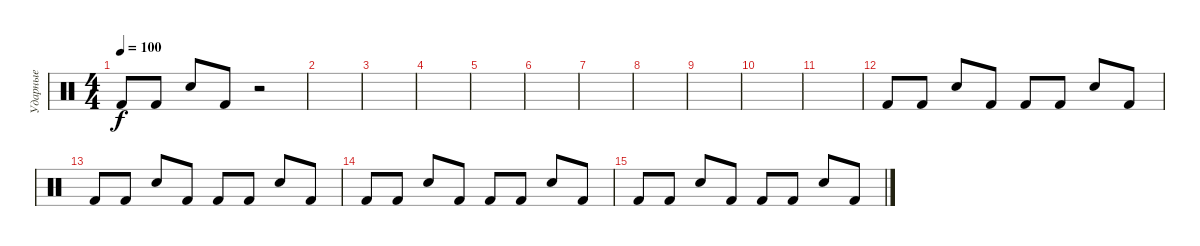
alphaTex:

\track ("Ударные" "Ударные") {instrument percussion}
\staff {score}
\articulation defaults
\ts (4 4)
\tempo 100
\clef neutral
\ks c "Kick (hit) 2".8{dy f} "Kick (hit) 2".8 "Snare (hit) 2".8 "Kick (hit) 2".8
r.2 |
|
|
|
|
|
|
|
|
|
|
"Kick (hit) 2".8 "Kick (hit) 2".8 "Snare (hit) 2".8 "Kick (hit) 2".8 "Kick (hit) 2".8 "Kick (hit) 2".8 "Snare (hit) 2".8 "Kick (hit) 2".8 |
"Kick (hit) 2".8 "Kick (hit) 2".8 "Snare (hit) 2".8 "Kick (hit) 2".8 "Kick (hit) 2".8 "Kick (hit) 2".8 "Snare (hit) 2".8 "Kick (hit) 2".8 |
"Kick (hit) 2".8 "Kick (hit) 2".8 "Snare (hit) 2".8 "Kick (hit) 2".8 "Kick (hit) 2".8 "Kick (hit) 2".8 "Snare (hit) 2".8 "Kick (hit) 2".8 |
"Kick (hit) 2".8 "Kick (hit) 2".8 "Snare (hit) 2".8 "Kick (hit) 2".8 "Kick (hit) 2".8 "Kick (hit) 2".8 "Snare (hit) 2".8 "Kick (hit) 2".8
